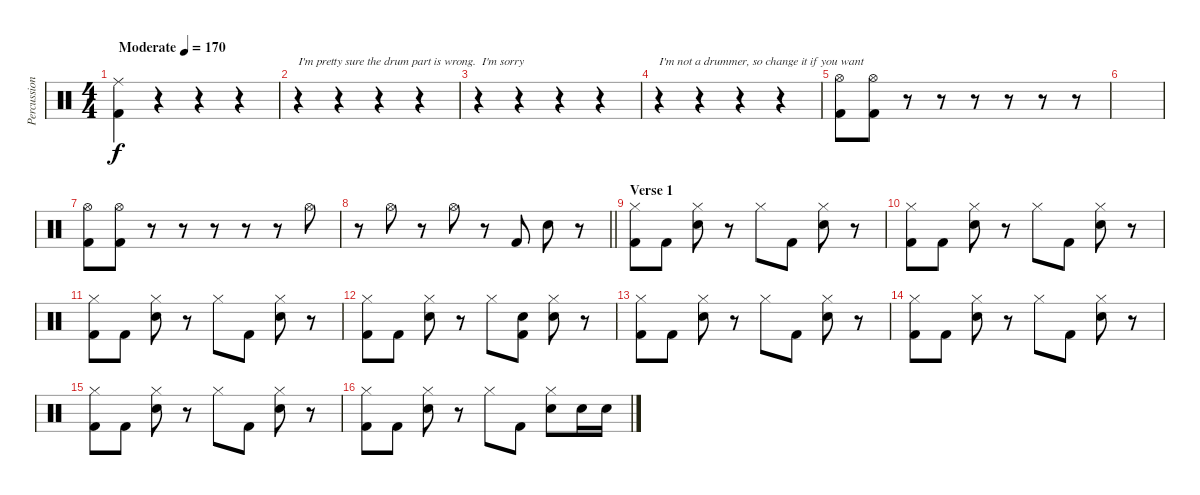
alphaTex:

\track ("Percussion" "Percussion") {instrument percussion}
\staff {score}
\articulation defaults
\ts (4 4)
\tempo (170 "Moderate")
\clef neutral
\ks c
("Ride (middle)" "Kick (hit) 2").4{dy f} r.4 r.4 r.4 |
r.4{txt "I'm pretty sure the drum part is wrong.  I'm sorry"} r.4 r.4 r.4 |
r.4 r.4 r.4 r.4 |
r.4{txt "I'm not a drummer, so change it if you want"} r.4 r.4 r.4 |
("Hi-Hat (open)" "Kick (hit) 2").8 ("Hi-Hat (open)" "Kick (hit) 2").8 r.8 r.8 r.8 r.8 r.8 r.8 |
|
("Hi-Hat (open)" "Kick (hit) 2").8 ("Hi-Hat (open)" "Kick (hit) 2").8 r.8 r.8 r.8 r.8 r.8 "Hi-Hat (open)".8 |
\barLineRight lightlight
r.8 "Hi-Hat (open)".8 r.8 "Hi-Hat (open)".8 r.8 "Kick (hit) 2".8 "Electric Snare (hit)".8 r.8 |
\section ("" "Verse 1")
("Hi-Hat (closed)" "Kick (hit) 2").8 "Kick (hit) 2".8 ("Hi-Hat (closed)" "Electric Snare (hit)").8 r.8 "Hi-Hat (closed)".8 "Kick (hit) 2".8 ("Hi-Hat (closed)" "Electric Snare (hit)").8 r.8 |
("Hi-Hat (closed)" "Kick (hit) 2").8 "Kick (hit) 2".8 ("Hi-Hat (closed)" "Electric Snare (hit)").8 r.8 "Hi-Hat (closed)".8 "Kick (hit) 2".8 ("Hi-Hat (closed)" "Electric Snare (hit)").8 r.8 |
("Hi-Hat (closed)" "Kick (hit) 2").8 "Kick (hit) 2".8 ("Hi-Hat (closed)" "Electric Snare (hit)").8 r.8 "Hi-Hat (closed)".8 "Kick (hit) 2".8 ("Hi-Hat (closed)" "Electric Snare (hit)").8 r.8 |
("Hi-Hat (closed)" "Kick (hit) 2").8 "Kick (hit) 2".8 ("Hi-Hat (closed)" "Electric Snare (hit)").8 r.8 "Hi-Hat (closed)".8 ("Electric Snare (hit)" "Kick (hit) 2").8 ("Hi-Hat (closed)" "Electric Snare (hit)").8 r.8 |
("Hi-Hat (closed)" "Kick (hit) 2").8 "Kick (hit) 2".8 ("Hi-Hat (closed)" "Electric Snare (hit)").8 r.8 "Hi-Hat (closed)".8 "Kick (hit) 2".8 ("Hi-Hat (closed)" "Electric Snare (hit)").8 r.8 |
("Hi-Hat (closed)" "Kick (hit) 2").8 "Kick (hit) 2".8 ("Hi-Hat (closed)" "Electric Snare (hit)").8 r.8 "Hi-Hat (closed)".8 "Kick (hit) 2".8 ("Hi-Hat (closed)" "Electric Snare (hit)").8 r.8 |
("Hi-Hat (closed)" "Kick (hit) 2").8 "Kick (hit) 2".8 ("Hi-Hat (closed)" "Electric Snare (hit)").8 r.8 "Hi-Hat (closed)".8 "Kick (hit) 2".8 ("Hi-Hat (closed)" "Electric Snare (hit)").8 r.8 |
("Hi-Hat (closed)" "Kick (hit) 2").8 "Kick (hit) 2".8 ("Hi-Hat (closed)" "Electric Snare (hit)").8 r.8 "Hi-Hat (closed)".8 "Kick (hit) 2".8 ("Hi-Hat (closed)" "Electric Snare (hit)").8 "Electric Snare (hit)".16 "Electric Snare (hit)".16
